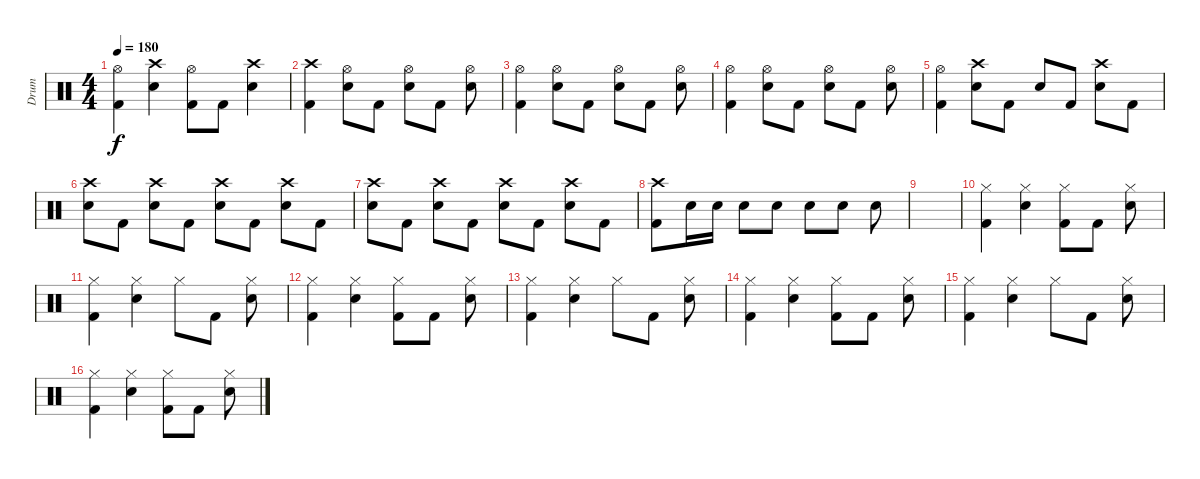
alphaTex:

\track ("Drum" "Drum") {instrument percussion}
\staff {score}
\articulation defaults
\ts (4 4)
\tempo 180
\clef neutral
\ks c
("Hi-Hat (open)" "Kick (hit) 2").4{dy f} ("Crash high (hit)" "Electric Snare (hit)").4 ("Hi-Hat (open)" "Kick (hit) 2").8 "Kick (hit) 2".8 ("Crash high (hit)" "Electric Snare (hit)").4 |
("Crash high (hit)" "Kick (hit) 2").4 ("Hi-Hat (open)" "Electric Snare (hit)").8 "Kick (hit) 2".8 ("Hi-Hat (open)" "Electric Snare (hit)").8 "Kick (hit) 2".8 ("Hi-Hat (open)" "Electric Snare (hit)").8 |
("Hi-Hat (open)" "Kick (hit) 2").4 ("Hi-Hat (open)" "Electric Snare (hit)").8 "Kick (hit) 2".8 ("Hi-Hat (open)" "Electric Snare (hit)").8 "Kick (hit) 2".8 ("Hi-Hat (open)" "Electric Snare (hit)").8 |
("Hi-Hat (open)" "Kick (hit) 2").4 ("Hi-Hat (open)" "Electric Snare (hit)").8 "Kick (hit) 2".8 ("Hi-Hat (open)" "Electric Snare (hit)").8 "Kick (hit) 2".8 ("Hi-Hat (open)" "Electric Snare (hit)").8 |
("Hi-Hat (open)" "Kick (hit) 2").4 ("Crash high (hit)" "Electric Snare (hit)").8 "Kick (hit) 2".8 "Electric Snare (hit)".8 "Kick (hit) 2".8 ("Crash high (hit)" "Electric Snare (hit)").8 "Kick (hit) 2".8 |
("Crash high (hit)" "Electric Snare (hit)").8 "Kick (hit) 2".8 ("Crash high (hit)" "Electric Snare (hit)").8 "Kick (hit) 2".8 ("Crash high (hit)" "Electric Snare (hit)").8 "Kick (hit) 2".8 ("Crash high (hit)" "Electric Snare (hit)").8 "Kick (hit) 2".8 |
("Crash high (hit)" "Electric Snare (hit)").8 "Kick (hit) 2".8 ("Crash high (hit)" "Electric Snare (hit)").8 "Kick (hit) 2".8 ("Crash high (hit)" "Electric Snare (hit)").8 "Kick (hit) 2".8 ("Crash high (hit)" "Electric Snare (hit)").8 "Kick (hit) 2".8 |
("Crash high (hit)" "Kick (hit) 2").8 "Electric Snare (hit)".16 "Electric Snare (hit)".16 "Electric Snare (hit)".8 "Electric Snare (hit)".8 "Electric Snare (hit)".8 "Electric Snare (hit)".8 "Electric Snare (hit)".8 |
|
("Hi-Hat (closed)" "Kick (hit) 2").4 ("Hi-Hat (closed)" "Electric Snare (hit)").4 ("Hi-Hat (closed)" "Kick (hit) 2").8 "Kick (hit) 2".8 ("Hi-Hat (closed)" "Electric Snare (hit)").8 |
("Hi-Hat (closed)" "Kick (hit) 2").4 ("Hi-Hat (closed)" "Electric Snare (hit)").4 "Hi-Hat (closed)".8 "Kick (hit) 2".8 ("Hi-Hat (closed)" "Electric Snare (hit)").8 |
("Hi-Hat (closed)" "Kick (hit) 2").4 ("Hi-Hat (closed)" "Electric Snare (hit)").4 ("Hi-Hat (closed)" "Kick (hit) 2").8 "Kick (hit) 2".8 ("Hi-Hat (closed)" "Electric Snare (hit)").8 |
("Hi-Hat (closed)" "Kick (hit) 2").4 ("Hi-Hat (closed)" "Electric Snare (hit)").4 "Hi-Hat (closed)".8 "Kick (hit) 2".8 ("Hi-Hat (closed)" "Electric Snare (hit)").8 |
("Hi-Hat (closed)" "Kick (hit) 2").4 ("Hi-Hat (closed)" "Electric Snare (hit)").4 ("Hi-Hat (closed)" "Kick (hit) 2").8 "Kick (hit) 2".8 ("Hi-Hat (closed)" "Electric Snare (hit)").8 |
("Hi-Hat (closed)" "Kick (hit) 2").4 ("Hi-Hat (closed)" "Electric Snare (hit)").4 "Hi-Hat (closed)".8 "Kick (hit) 2".8 ("Hi-Hat (closed)" "Electric Snare (hit)").8 |
("Hi-Hat (closed)" "Kick (hit) 2").4 ("Hi-Hat (closed)" "Electric Snare (hit)").4 ("Hi-Hat (closed)" "Kick (hit) 2").8 "Kick (hit) 2".8 ("Hi-Hat (closed)" "Electric Snare (hit)").8
